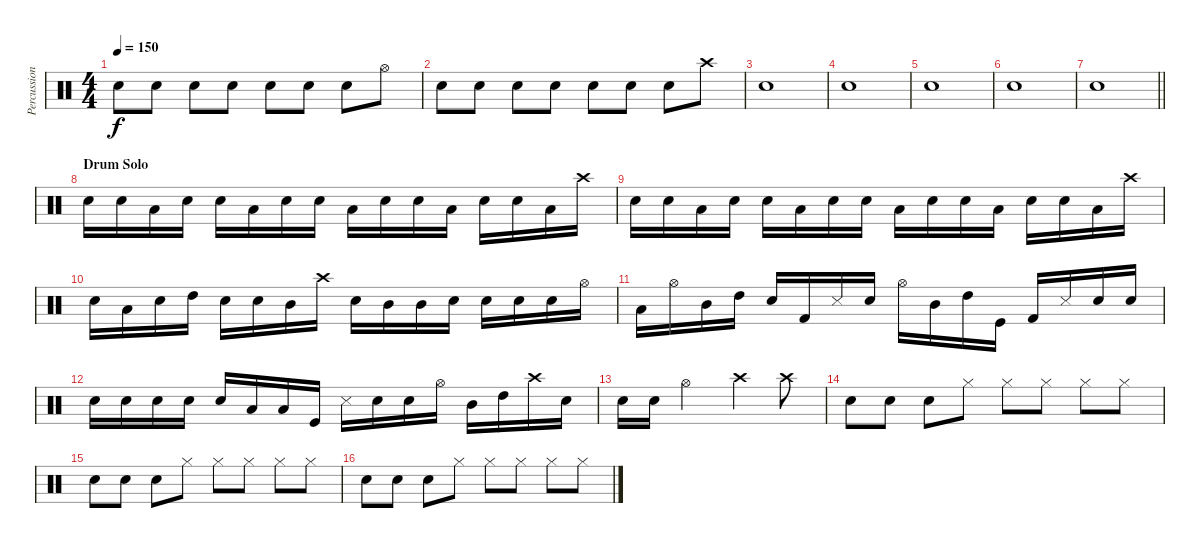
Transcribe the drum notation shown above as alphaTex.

\track ("Percussion" "Percussion") {instrument percussion}
\staff {score}
\articulation defaults
\ts (4 4)
\tempo 150
\clef neutral
\ks c "Snare (hit) 2".8{dy f} "Snare (hit) 2".8 "Snare (hit) 2".8 "Snare (hit) 2".8 "Snare (hit) 2".8 "Snare (hit) 2".8 "Snare (hit) 2".8 "Hi-Hat (open)".8
|
"Snare (hit) 2".8 "Snare (hit) 2".8 "Snare (hit) 2".8 "Snare (hit) 2".8 "Snare (hit) 2".8 "Snare (hit) 2".8 "Snare (hit) 2".8 "Crash high (hit)".8 |
"Electric Snare (hit)".1 |
"Electric Snare (hit)".1 |
"Electric Snare (hit)".1 |
"Snare (hit) 2".1 |
\barLineRight lightlight "Snare (hit) 2".1
|
\section ("" "Drum Solo")
"Snare (hit) 2".16 "Electric Snare (hit)".16 "Low Tom (hit)".16 "Snare (hit) 2".16 "Electric Snare (hit)".16 "Low Tom (hit)".16 "Snare (hit) 2".16 "Electric Snare (hit)".16 "Low Tom (hit)".16 "Snare (hit) 2".16 "Electric Snare (hit)".16 "Low Tom (hit)".16 "Snare (hit) 2".16 "Electric Snare (hit)".16 "Low Tom (hit)".16 "Crash high (hit)".16 |
"Snare (hit) 2".16 "Electric Snare (hit)".16 "Low Tom (hit)".16 "Snare (hit) 2".16 "Electric Snare (hit)".16 "Low Tom (hit)".16 "Snare (hit) 2".16 "Electric Snare (hit)".16 "Low Tom (hit)".16 "Snare (hit) 2".16 "Electric Snare (hit)".16 "Low Tom (hit)".16 "Snare (hit) 2".16 "Electric Snare (hit)".16 "Low Tom (hit)".16 "Crash high (hit)".16 |
"Snare (hit) 2".16 "Low Tom (hit)".16 "Electric Snare (hit)".16 "High Tom (hit)".16 "Snare (hit) 2".16 "Electric Snare (hit)".16 "Mid Tom (hit)".16 "Crash high (hit)".16 "Snare (hit) 2".16 "Mid Tom (hit)".16 "Mid Tom (hit)".16 "Snare (hit) 2".16 "Snare (hit) 2".16 "Electric Snare (hit)".16 "Electric Snare (hit)".16 "Hi-Hat (open)".16 |
"Low Tom (hit)".16 "Hi-Hat (open)".16 "Mid Tom (hit)".16 "High Tom (hit)".16 "Snare (hit) 2".16 "Kick (hit) 2".16 "Snare (side stick) 3".16 "Snare (hit) 2".16 "Hi-Hat (open)".16 "Mid Tom (hit)".16 "High Tom (hit)".16 "Kick (hit)".16 "Kick (hit) 2".16 "Snare (side stick) 3".16 "Snare (hit) 2".16 "Electric Snare (hit)".16 |
"Snare (hit) 2".16 "Electric Snare (hit)".16 "Snare (hit) 2".16 "Electric Snare (hit)".16 "Electric Snare (hit)".16 "Low Tom (hit)".16 "Low Tom (hit)".16 "Kick (hit)".16 "Snare (side stick) 3".16 "Snare (hit) 2".16 "Electric Snare (hit)".16 "Hi-Hat (open)".16 "Mid Tom (hit)".16 "High Tom (hit)".16 "Crash high (hit)".16 "Snare (hit) 2".16 |
"Electric Snare (hit)".16 "Electric Snare (hit)".16 "Hi-Hat (open)".2 "Crash high (hit)".4 "Crash high (hit)".8 |
"Electric Snare (hit)".8 "Electric Snare (hit)".8 "Electric Snare (hit)".8 "Hi-Hat (closed)".8 "Hi-Hat (closed)".8 "Hi-Hat (closed)".8 "Hi-Hat (closed)".8 "Hi-Hat (closed)".8 |
"Electric Snare (hit)".8 "Electric Snare (hit)".8 "Electric Snare (hit)".8 "Hi-Hat (closed)".8 "Hi-Hat (closed)".8 "Hi-Hat (closed)".8 "Hi-Hat (closed)".8 "Hi-Hat (closed)".8 |
"Electric Snare (hit)".8 "Electric Snare (hit)".8 "Electric Snare (hit)".8 "Hi-Hat (closed)".8 "Hi-Hat (closed)".8 "Hi-Hat (closed)".8 "Hi-Hat (closed)".8 "Hi-Hat (closed)".8
